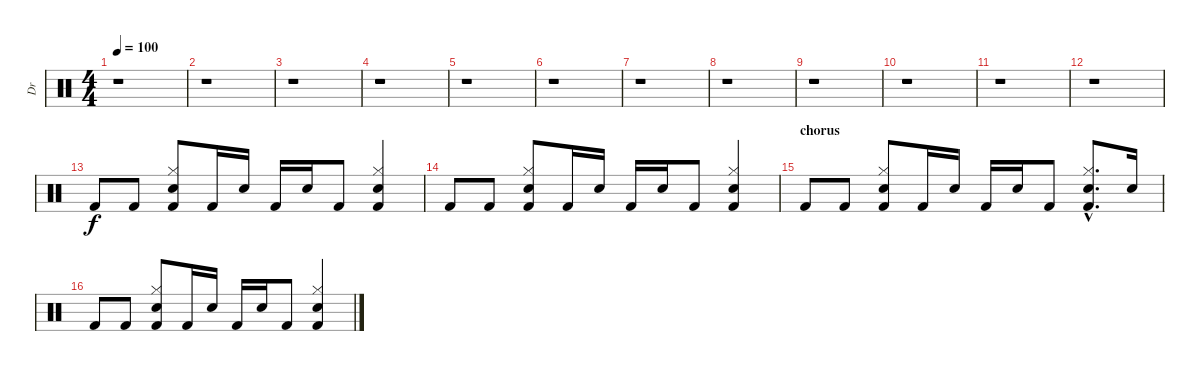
\track ("Dr" "Dr") {instrument percussion}
\staff {score}
\articulation defaults
\ts (4 4)
\tempo 100
\clef neutral
\ks c
r.1{dy f volume 16} |
r.1 |
r.1 |
r.1 |
r.1 |
r.1 |
r.1 |
r.1 |
r.1 |
r.1 |
r.1 |
r.1 |
"Kick (hit) 2".8 "Kick (hit) 2".8 ("Hi-Hat (closed)" "Electric Snare (hit)" "Kick (hit) 2").8 "Kick (hit) 2".16 "Electric Snare (hit)".16 "Kick (hit) 2".16 "Electric Snare (hit)".16 "Kick (hit) 2".8 ("Hi-Hat (closed)" "Electric Snare (hit)" "Kick (hit) 2").4 |
"Kick (hit) 2".8 "Kick (hit) 2".8 ("Hi-Hat (closed)" "Electric Snare (hit)" "Kick (hit) 2").8 "Kick (hit) 2".16 "Electric Snare (hit)".16 "Kick (hit) 2".16 "Electric Snare (hit)".16 "Kick (hit) 2".8 ("Hi-Hat (closed)" "Electric Snare (hit)" "Kick (hit) 2").4 |
\section ("" "chorus")
"Kick (hit) 2".8 "Kick (hit) 2".8 ("Hi-Hat (closed)" "Electric Snare (hit)" "Kick (hit) 2").8 "Kick (hit) 2".16 "Electric Snare (hit)".16 "Kick (hit) 2".16 "Electric Snare (hit)".16 "Kick (hit) 2".8 ("Hi-Hat (closed)"{hac} "Electric Snare (hit)"{hac} "Kick (hit) 2"{hac}).8{d} "Electric Snare (hit)".16 |
"Kick (hit) 2".8 "Kick (hit) 2".8 ("Hi-Hat (closed)" "Electric Snare (hit)" "Kick (hit) 2").8 "Kick (hit) 2".16 "Electric Snare (hit)".16 "Kick (hit) 2".16 "Electric Snare (hit)".16 "Kick (hit) 2".8 ("Hi-Hat (closed)" "Electric Snare (hit)" "Kick (hit) 2").4
